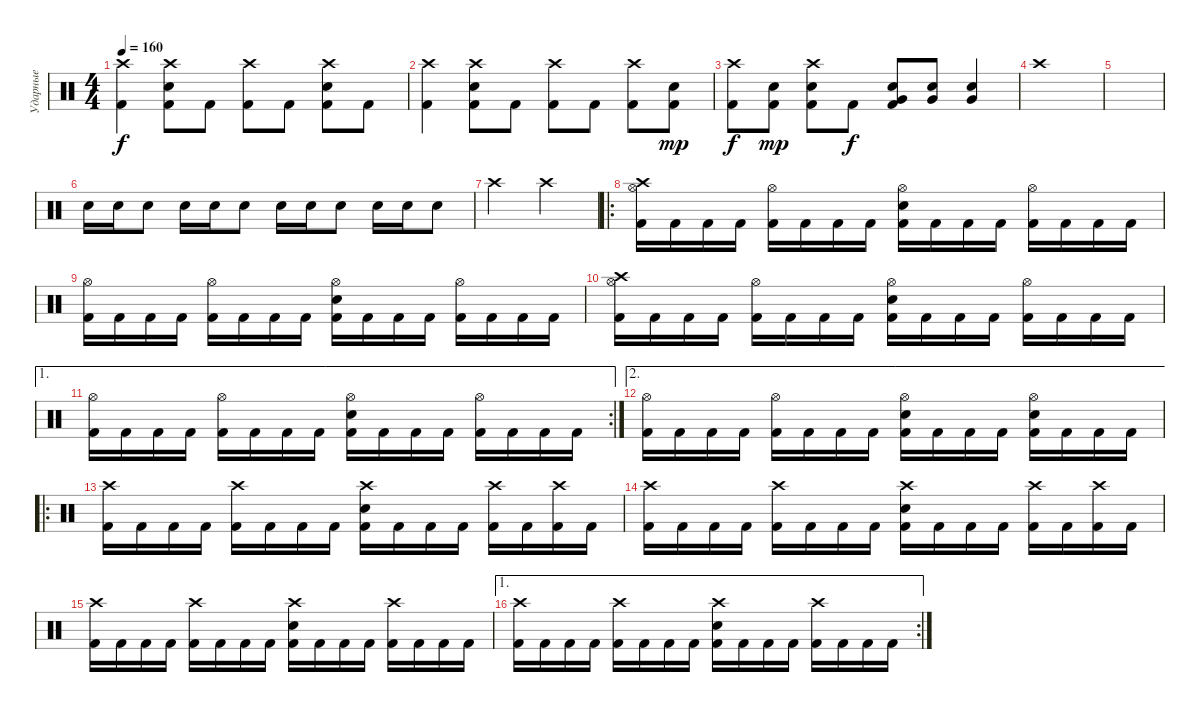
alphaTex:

\track ("Ударные" "Ударные") {instrument percussion}
\staff {score}
\articulation defaults
\ts (4 4)
\tempo 160
\clef neutral
\ks c
("Crash high (hit)" "Kick (hit) 2").4{dy f} ("Crash high (hit)" "Snare (hit) 2" "Kick (hit) 2").8 "Kick (hit) 2".8 ("Crash high (hit)" "Kick (hit) 2").8 "Kick (hit) 2".8 ("Crash high (hit)" "Snare (hit) 2" "Kick (hit) 2").8 "Kick (hit) 2".8 |
("Crash high (hit)" "Kick (hit) 2").4 ("Crash high (hit)" "Snare (hit) 2" "Kick (hit) 2").8 "Kick (hit) 2".8 ("Crash high (hit)" "Kick (hit) 2").8 "Kick (hit) 2".8 ("Crash high (hit)" "Kick (hit) 2").8 ("Snare (hit) 2" "Kick (hit) 2").8{dy mp} |
("Crash high (hit)" "Kick (hit) 2").8{dy f} ("Snare (hit) 2" "Kick (hit) 2").8{dy mp} ("Crash high (hit)" "Snare (hit) 2" "Kick (hit) 2").8 "Kick (hit) 2".8{dy f} ("Very Low Tom (hit)" "Snare (hit) 2" "Kick (hit) 2").8 ("Very Low Tom (hit)" "Snare (hit) 2").8 ("Very Low Tom (hit)" "Snare (hit) 2").4 |
"Crash high (hit)".1 |
|
"Snare (hit) 2".16 "Snare (hit) 2".16 "Snare (hit) 2".8 "Snare (hit) 2".16 "Snare (hit) 2".16 "Snare (hit) 2".8 "Snare (hit) 2".16 "Snare (hit) 2".16 "Snare (hit) 2".8 "Snare (hit) 2".16 "Snare (hit) 2".16 "Snare (hit) 2".8 |
"Crash high (hit)".2 "Crash high (hit)".2 |
\ro
("Crash high (hit)" "Hi-Hat (open)" "Kick (hit) 2").16 "Kick (hit) 2".16 "Kick (hit) 2".16 "Kick (hit) 2".16 ("Hi-Hat (open)" "Kick (hit) 2").16 "Kick (hit) 2".16 "Kick (hit) 2".16 "Kick (hit) 2".16 ("Hi-Hat (open)" "Snare (hit) 2" "Kick (hit) 2").16 "Kick (hit) 2".16 "Kick (hit) 2".16 "Kick (hit) 2".16 ("Hi-Hat (open)" "Kick (hit) 2").16 "Kick (hit) 2".16 "Kick (hit) 2".16 "Kick (hit) 2".16 |
("Hi-Hat (open)" "Kick (hit) 2").16 "Kick (hit) 2".16 "Kick (hit) 2".16 "Kick (hit) 2".16 ("Hi-Hat (open)" "Kick (hit) 2").16 "Kick (hit) 2".16 "Kick (hit) 2".16 "Kick (hit) 2".16 ("Hi-Hat (open)" "Snare (hit) 2" "Kick (hit) 2").16 "Kick (hit) 2".16 "Kick (hit) 2".16 "Kick (hit) 2".16 ("Hi-Hat (open)" "Kick (hit) 2").16 "Kick (hit) 2".16 "Kick (hit) 2".16 "Kick (hit) 2".16 |
("Crash high (hit)" "Hi-Hat (open)" "Kick (hit) 2").16 "Kick (hit) 2".16 "Kick (hit) 2".16 "Kick (hit) 2".16 ("Hi-Hat (open)" "Kick (hit) 2").16 "Kick (hit) 2".16 "Kick (hit) 2".16 "Kick (hit) 2".16 ("Hi-Hat (open)" "Snare (hit) 2" "Kick (hit) 2").16 "Kick (hit) 2".16 "Kick (hit) 2".16 "Kick (hit) 2".16 ("Hi-Hat (open)" "Kick (hit) 2").16 "Kick (hit) 2".16 "Kick (hit) 2".16 "Kick (hit) 2".16 |
\ae 1
\rc 2
("Hi-Hat (open)" "Kick (hit) 2").16 "Kick (hit) 2".16 "Kick (hit) 2".16 "Kick (hit) 2".16 ("Hi-Hat (open)" "Kick (hit) 2").16 "Kick (hit) 2".16 "Kick (hit) 2".16 "Kick (hit) 2".16 ("Hi-Hat (open)" "Snare (hit) 2" "Kick (hit) 2").16 "Kick (hit) 2".16 "Kick (hit) 2".16 "Kick (hit) 2".16 ("Hi-Hat (open)" "Kick (hit) 2").16 "Kick (hit) 2".16 "Kick (hit) 2".16 "Kick (hit) 2".16 |
\ae 2
("Hi-Hat (open)" "Kick (hit) 2").16 "Kick (hit) 2".16 "Kick (hit) 2".16 "Kick (hit) 2".16 ("Hi-Hat (open)" "Kick (hit) 2").16 "Kick (hit) 2".16 "Kick (hit) 2".16 "Kick (hit) 2".16 ("Hi-Hat (open)" "Snare (hit) 2" "Kick (hit) 2").16 "Kick (hit) 2".16 "Kick (hit) 2".16 "Kick (hit) 2".16 ("Hi-Hat (open)" "Snare (hit) 2" "Kick (hit) 2").16 "Kick (hit) 2".16 "Kick (hit) 2".16 "Kick (hit) 2".16 |
\ro
("Crash high (hit)" "Kick (hit) 2").16 "Kick (hit) 2".16 "Kick (hit) 2".16 "Kick (hit) 2".16 ("Crash high (hit)" "Kick (hit) 2").16 "Kick (hit) 2".16 "Kick (hit) 2".16 "Kick (hit) 2".16 ("Crash high (hit)" "Snare (hit) 2" "Kick (hit) 2").16 "Kick (hit) 2".16 "Kick (hit) 2".16 "Kick (hit) 2".16 ("Crash high (hit)" "Kick (hit) 2").16 "Kick (hit) 2".16 ("Crash high (hit)" "Kick (hit) 2").16 "Kick (hit) 2".16 |
("Crash high (hit)" "Kick (hit) 2").16 "Kick (hit) 2".16 "Kick (hit) 2".16 "Kick (hit) 2".16 ("Crash high (hit)" "Kick (hit) 2").16 "Kick (hit) 2".16 "Kick (hit) 2".16 "Kick (hit) 2".16 ("Crash high (hit)" "Snare (hit) 2" "Kick (hit) 2").16 "Kick (hit) 2".16 "Kick (hit) 2".16 "Kick (hit) 2".16 ("Crash high (hit)" "Kick (hit) 2").16 "Kick (hit) 2".16 ("Crash high (hit)" "Kick (hit) 2").16 "Kick (hit) 2".16 |
("Crash high (hit)" "Kick (hit) 2").16 "Kick (hit) 2".16 "Kick (hit) 2".16 "Kick (hit) 2".16 ("Crash high (hit)" "Kick (hit) 2").16 "Kick (hit) 2".16 "Kick (hit) 2".16 "Kick (hit) 2".16 ("Crash high (hit)" "Snare (hit) 2" "Kick (hit) 2").16 "Kick (hit) 2".16 "Kick (hit) 2".16 "Kick (hit) 2".16 ("Crash high (hit)" "Kick (hit) 2").16 "Kick (hit) 2".16 "Kick (hit) 2".16 "Kick (hit) 2".16 |
\ae 1
\rc 2
("Crash high (hit)" "Kick (hit) 2").16 "Kick (hit) 2".16 "Kick (hit) 2".16 "Kick (hit) 2".16 ("Crash high (hit)" "Kick (hit) 2").16 "Kick (hit) 2".16 "Kick (hit) 2".16 "Kick (hit) 2".16 ("Crash high (hit)" "Snare (hit) 2" "Kick (hit) 2").16 "Kick (hit) 2".16 "Kick (hit) 2".16 "Kick (hit) 2".16 ("Crash high (hit)" "Kick (hit) 2").16 "Kick (hit) 2".16 "Kick (hit) 2".16 "Kick (hit) 2".16
